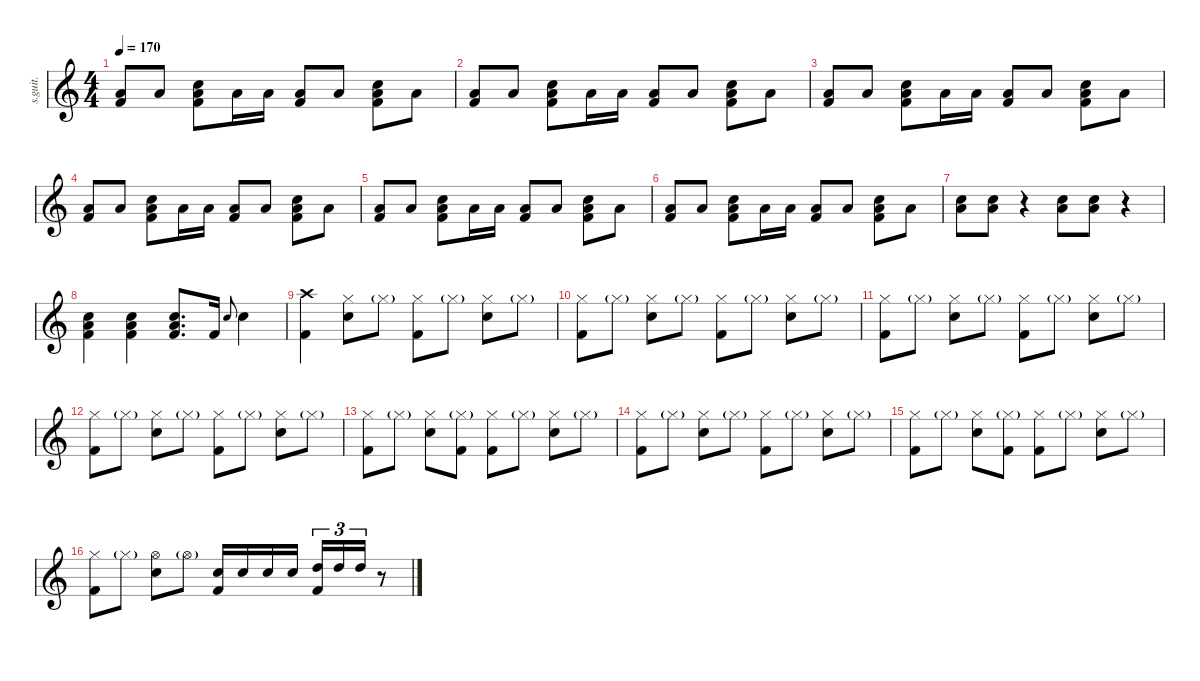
\defaultSystemsLayout 4
\hideDynamics
\bracketExtendMode nobrackets
\track ("Drumkit" "s.guit.") {instrument percussion}
\staff {score}
\articulation defaults
\ts (4 4)
\tempo 170
\clef g2
\ks c
("Low Floor Tom (hit)" "Kick (hit) 2").8{lyrics (0 "") lyrics (1 "") lyrics (2 "") lyrics (3 "") lyrics (4 "") dy ff} "Low Floor Tom (hit)".8{lyrics (0 "") lyrics (1 "") lyrics (2 "") lyrics (3 "") lyrics (4 "")} ("Snare (hit) 2" "Low Floor Tom (hit)" "Kick (hit) 2").8{lyrics (0 "") lyrics (1 "") lyrics (2 "") lyrics (3 "") lyrics (4 "")} "Low Floor Tom (hit)".16{lyrics (0 "") lyrics (1 "") lyrics (2 "") lyrics (3 "") lyrics (4 "")} "Low Floor Tom (hit)".16{lyrics (0 "") lyrics (1 "") lyrics (2 "") lyrics (3 "") lyrics (4 "")} ("Low Floor Tom (hit)" "Kick (hit) 2").8{lyrics (0 "") lyrics (1 "") lyrics (2 "") lyrics (3 "") lyrics (4 "")} "Low Floor Tom (hit)".8{lyrics (0 "") lyrics (1 "") lyrics (2 "") lyrics (3 "") lyrics (4 "")} ("Snare (hit) 2" "Low Floor Tom (hit)" "Kick (hit) 2").8{lyrics (0 "") lyrics (1 "") lyrics (2 "") lyrics (3 "") lyrics (4 "")} "Low Floor Tom (hit)".8{lyrics (0 "") lyrics (1 "") lyrics (2 "") lyrics (3 "") lyrics (4 "")} |
("Low Floor Tom (hit)" "Kick (hit) 2").8{lyrics (0 "") lyrics (1 "") lyrics (2 "") lyrics (3 "") lyrics (4 "")} "Low Floor Tom (hit)".8{lyrics (0 "") lyrics (1 "") lyrics (2 "") lyrics (3 "") lyrics (4 "")} ("Snare (hit) 2" "Low Floor Tom (hit)" "Kick (hit) 2").8{lyrics (0 "") lyrics (1 "") lyrics (2 "") lyrics (3 "") lyrics (4 "")} "Low Floor Tom (hit)".16{lyrics (0 "") lyrics (1 "") lyrics (2 "") lyrics (3 "") lyrics (4 "")} "Low Floor Tom (hit)".16{lyrics (0 "") lyrics (1 "") lyrics (2 "") lyrics (3 "") lyrics (4 "")} ("Low Floor Tom (hit)" "Kick (hit) 2").8{lyrics (0 "") lyrics (1 "") lyrics (2 "") lyrics (3 "") lyrics (4 "")} "Low Floor Tom (hit)".8{lyrics (0 "") lyrics (1 "") lyrics (2 "") lyrics (3 "") lyrics (4 "")} ("Snare (hit) 2" "Low Floor Tom (hit)" "Kick (hit) 2").8{lyrics (0 "") lyrics (1 "") lyrics (2 "") lyrics (3 "") lyrics (4 "")} "Low Floor Tom (hit)".8{lyrics (0 "") lyrics (1 "") lyrics (2 "") lyrics (3 "") lyrics (4 "")} |
("Low Floor Tom (hit)" "Kick (hit) 2").8{lyrics (0 "") lyrics (1 "") lyrics (2 "") lyrics (3 "") lyrics (4 "")} "Low Floor Tom (hit)".8{lyrics (0 "") lyrics (1 "") lyrics (2 "") lyrics (3 "") lyrics (4 "")} ("Snare (hit) 2" "Low Floor Tom (hit)" "Kick (hit) 2").8{lyrics (0 "") lyrics (1 "") lyrics (2 "") lyrics (3 "") lyrics (4 "")} "Low Floor Tom (hit)".16{lyrics (0 "") lyrics (1 "") lyrics (2 "") lyrics (3 "") lyrics (4 "")} "Low Floor Tom (hit)".16{lyrics (0 "") lyrics (1 "") lyrics (2 "") lyrics (3 "") lyrics (4 "")} ("Low Floor Tom (hit)" "Kick (hit) 2").8{lyrics (0 "") lyrics (1 "") lyrics (2 "") lyrics (3 "") lyrics (4 "")} "Low Floor Tom (hit)".8{lyrics (0 "") lyrics (1 "") lyrics (2 "") lyrics (3 "") lyrics (4 "")} ("Snare (hit) 2" "Low Floor Tom (hit)" "Kick (hit) 2").8{lyrics (0 "") lyrics (1 "") lyrics (2 "") lyrics (3 "") lyrics (4 "")} "Low Floor Tom (hit)".8{lyrics (0 "") lyrics (1 "") lyrics (2 "") lyrics (3 "") lyrics (4 "")} |
("Low Floor Tom (hit)" "Kick (hit) 2").8{lyrics (0 "") lyrics (1 "") lyrics (2 "") lyrics (3 "") lyrics (4 "")} "Low Floor Tom (hit)".8{lyrics (0 "") lyrics (1 "") lyrics (2 "") lyrics (3 "") lyrics (4 "")} ("Snare (hit) 2" "Low Floor Tom (hit)" "Kick (hit) 2").8{lyrics (0 "") lyrics (1 "") lyrics (2 "") lyrics (3 "") lyrics (4 "")} "Low Floor Tom (hit)".16{lyrics (0 "") lyrics (1 "") lyrics (2 "") lyrics (3 "") lyrics (4 "")} "Low Floor Tom (hit)".16{lyrics (0 "") lyrics (1 "") lyrics (2 "") lyrics (3 "") lyrics (4 "")} ("Low Floor Tom (hit)" "Kick (hit) 2").8{lyrics (0 "") lyrics (1 "") lyrics (2 "") lyrics (3 "") lyrics (4 "")} "Low Floor Tom (hit)".8{lyrics (0 "") lyrics (1 "") lyrics (2 "") lyrics (3 "") lyrics (4 "")} ("Snare (hit) 2" "Low Floor Tom (hit)" "Kick (hit) 2").8{lyrics (0 "") lyrics (1 "") lyrics (2 "") lyrics (3 "") lyrics (4 "")} "Low Floor Tom (hit)".8{lyrics (0 "") lyrics (1 "") lyrics (2 "") lyrics (3 "") lyrics (4 "")} |
("Low Floor Tom (hit)" "Kick (hit) 2").8{lyrics (0 "") lyrics (1 "") lyrics (2 "") lyrics (3 "") lyrics (4 "")} "Low Floor Tom (hit)".8{lyrics (0 "") lyrics (1 "") lyrics (2 "") lyrics (3 "") lyrics (4 "")} ("Snare (hit) 2" "Low Floor Tom (hit)" "Kick (hit) 2").8{lyrics (0 "") lyrics (1 "") lyrics (2 "") lyrics (3 "") lyrics (4 "")} "Low Floor Tom (hit)".16{lyrics (0 "") lyrics (1 "") lyrics (2 "") lyrics (3 "") lyrics (4 "")} "Low Floor Tom (hit)".16{lyrics (0 "") lyrics (1 "") lyrics (2 "") lyrics (3 "") lyrics (4 "")} ("Low Floor Tom (hit)" "Kick (hit) 2").8{lyrics (0 "") lyrics (1 "") lyrics (2 "") lyrics (3 "") lyrics (4 "")} "Low Floor Tom (hit)".8{lyrics (0 "") lyrics (1 "") lyrics (2 "") lyrics (3 "") lyrics (4 "")} ("Snare (hit) 2" "Low Floor Tom (hit)" "Kick (hit) 2").8{lyrics (0 "") lyrics (1 "") lyrics (2 "") lyrics (3 "") lyrics (4 "")} "Low Floor Tom (hit)".8{lyrics (0 "") lyrics (1 "") lyrics (2 "") lyrics (3 "") lyrics (4 "")} |
("Low Floor Tom (hit)" "Kick (hit) 2").8{lyrics (0 "") lyrics (1 "") lyrics (2 "") lyrics (3 "") lyrics (4 "")} "Low Floor Tom (hit)".8{lyrics (0 "") lyrics (1 "") lyrics (2 "") lyrics (3 "") lyrics (4 "")} ("Snare (hit) 2" "Low Floor Tom (hit)" "Kick (hit) 2").8{lyrics (0 "") lyrics (1 "") lyrics (2 "") lyrics (3 "") lyrics (4 "")} "Low Floor Tom (hit)".16{lyrics (0 "") lyrics (1 "") lyrics (2 "") lyrics (3 "") lyrics (4 "")} "Low Floor Tom (hit)".16{lyrics (0 "") lyrics (1 "") lyrics (2 "") lyrics (3 "") lyrics (4 "")} ("Low Floor Tom (hit)" "Kick (hit) 2").8{lyrics (0 "") lyrics (1 "") lyrics (2 "") lyrics (3 "") lyrics (4 "")} "Low Floor Tom (hit)".8{lyrics (0 "") lyrics (1 "") lyrics (2 "") lyrics (3 "") lyrics (4 "")} ("Snare (hit) 2" "Low Floor Tom (hit)" "Kick (hit) 2").8{lyrics (0 "") lyrics (1 "") lyrics (2 "") lyrics (3 "") lyrics (4 "")} "Low Floor Tom (hit)".8{lyrics (0 "") lyrics (1 "") lyrics (2 "") lyrics (3 "") lyrics (4 "")} |
("Snare (hit) 2" "Low Floor Tom (hit)").8{lyrics (0 "") lyrics (1 "") lyrics (2 "") lyrics (3 "") lyrics (4 "")} ("Snare (hit) 2" "Low Floor Tom (hit)").8{lyrics (0 "") lyrics (1 "") lyrics (2 "") lyrics (3 "") lyrics (4 "")} r.4 ("Snare (hit) 2" "Low Floor Tom (hit)").8{lyrics (0 "") lyrics (1 "") lyrics (2 "") lyrics (3 "") lyrics (4 "")} ("Snare (hit) 2" "Low Floor Tom (hit)").8{lyrics (0 "") lyrics (1 "") lyrics (2 "") lyrics (3 "") lyrics (4 "")} r.4 |
("Snare (hit) 2" "Low Floor Tom (hit)" "Kick (hit) 2").4{lyrics (0 "") lyrics (1 "") lyrics (2 "") lyrics (3 "") lyrics (4 "")} ("Snare (hit) 2" "Low Floor Tom (hit)" "Kick (hit) 2").4{lyrics (0 "") lyrics (1 "") lyrics (2 "") lyrics (3 "") lyrics (4 "")} ("Snare (hit) 2" "Low Floor Tom (hit)" "Kick (hit) 2").8{d lyrics (0 "") lyrics (1 "") lyrics (2 "") lyrics (3 "") lyrics (4 "")} "Kick (hit) 2".16{lyrics (0 "") lyrics (1 "") lyrics (2 "") lyrics (3 "") lyrics (4 "")} "Snare (hit) 2".8{lyrics (0 "") lyrics (1 "") lyrics (2 "") lyrics (3 "") lyrics (4 "") gr onbeat} "Snare (hit) 2".4{lyrics (0 "") lyrics (1 "") lyrics (2 "") lyrics (3 "") lyrics (4 "")} |
("Crash high (hit)" "Kick (hit) 2").4{lyrics (0 "") lyrics (1 "") lyrics (2 "") lyrics (3 "") lyrics (4 "")} ("Hi-Hat (closed)" "Snare (hit) 2").8{lyrics (0 "") lyrics (1 "") lyrics (2 "") lyrics (3 "") lyrics (4 "")} "Hi-Hat (closed)"{g}.8{lyrics (0 "") lyrics (1 "") lyrics (2 "") lyrics (3 "") lyrics (4 "")} ("Hi-Hat (closed)" "Kick (hit) 2").8{lyrics (0 "") lyrics (1 "") lyrics (2 "") lyrics (3 "") lyrics (4 "")} "Hi-Hat (closed)"{g}.8{lyrics (0 "") lyrics (1 "") lyrics (2 "") lyrics (3 "") lyrics (4 "")} ("Hi-Hat (closed)" "Snare (hit) 2").8{lyrics (0 "") lyrics (1 "") lyrics (2 "") lyrics (3 "") lyrics (4 "")} "Hi-Hat (closed)"{g}.8{lyrics (0 "") lyrics (1 "") lyrics (2 "") lyrics (3 "") lyrics (4 "")} |
("Hi-Hat (closed)" "Kick (hit) 2").8{lyrics (0 "") lyrics (1 "") lyrics (2 "") lyrics (3 "") lyrics (4 "")} "Hi-Hat (closed)"{g}.8{lyrics (0 "") lyrics (1 "") lyrics (2 "") lyrics (3 "") lyrics (4 "")} ("Hi-Hat (closed)" "Snare (hit) 2").8{lyrics (0 "") lyrics (1 "") lyrics (2 "") lyrics (3 "") lyrics (4 "")} "Hi-Hat (closed)"{g}.8{lyrics (0 "") lyrics (1 "") lyrics (2 "") lyrics (3 "") lyrics (4 "")} ("Hi-Hat (closed)" "Kick (hit) 2").8{lyrics (0 "") lyrics (1 "") lyrics (2 "") lyrics (3 "") lyrics (4 "")} "Hi-Hat (closed)"{g}.8{lyrics (0 "") lyrics (1 "") lyrics (2 "") lyrics (3 "") lyrics (4 "")} ("Hi-Hat (closed)" "Snare (hit) 2").8{lyrics (0 "") lyrics (1 "") lyrics (2 "") lyrics (3 "") lyrics (4 "")} "Hi-Hat (closed)"{g}.8{lyrics (0 "") lyrics (1 "") lyrics (2 "") lyrics (3 "") lyrics (4 "")} |
("Hi-Hat (closed)" "Kick (hit) 2").8{lyrics (0 "") lyrics (1 "") lyrics (2 "") lyrics (3 "") lyrics (4 "")} "Hi-Hat (closed)"{g}.8{lyrics (0 "") lyrics (1 "") lyrics (2 "") lyrics (3 "") lyrics (4 "")} ("Hi-Hat (closed)" "Snare (hit) 2").8{lyrics (0 "") lyrics (1 "") lyrics (2 "") lyrics (3 "") lyrics (4 "")} "Hi-Hat (closed)"{g}.8{lyrics (0 "") lyrics (1 "") lyrics (2 "") lyrics (3 "") lyrics (4 "")} ("Hi-Hat (closed)" "Kick (hit) 2").8{lyrics (0 "") lyrics (1 "") lyrics (2 "") lyrics (3 "") lyrics (4 "")} "Hi-Hat (closed)"{g}.8{lyrics (0 "") lyrics (1 "") lyrics (2 "") lyrics (3 "") lyrics (4 "")} ("Hi-Hat (closed)" "Snare (hit) 2").8{lyrics (0 "") lyrics (1 "") lyrics (2 "") lyrics (3 "") lyrics (4 "")} "Hi-Hat (closed)"{g}.8{lyrics (0 "") lyrics (1 "") lyrics (2 "") lyrics (3 "") lyrics (4 "")} |
("Hi-Hat (closed)" "Kick (hit) 2").8{lyrics (0 "") lyrics (1 "") lyrics (2 "") lyrics (3 "") lyrics (4 "")} "Hi-Hat (closed)"{g}.8{lyrics (0 "") lyrics (1 "") lyrics (2 "") lyrics (3 "") lyrics (4 "")} ("Hi-Hat (closed)" "Snare (hit) 2").8{lyrics (0 "") lyrics (1 "") lyrics (2 "") lyrics (3 "") lyrics (4 "")} "Hi-Hat (closed)"{g}.8{lyrics (0 "") lyrics (1 "") lyrics (2 "") lyrics (3 "") lyrics (4 "")} ("Hi-Hat (closed)" "Kick (hit) 2").8{lyrics (0 "") lyrics (1 "") lyrics (2 "") lyrics (3 "") lyrics (4 "")} "Hi-Hat (closed)"{g}.8{lyrics (0 "") lyrics (1 "") lyrics (2 "") lyrics (3 "") lyrics (4 "")} ("Hi-Hat (closed)" "Snare (hit) 2").8{lyrics (0 "") lyrics (1 "") lyrics (2 "") lyrics (3 "") lyrics (4 "")} "Hi-Hat (closed)"{g}.8{lyrics (0 "") lyrics (1 "") lyrics (2 "") lyrics (3 "") lyrics (4 "")} |
("Hi-Hat (closed)" "Kick (hit) 2").8{lyrics (0 "") lyrics (1 "") lyrics (2 "") lyrics (3 "") lyrics (4 "")} "Hi-Hat (closed)"{g}.8{lyrics (0 "") lyrics (1 "") lyrics (2 "") lyrics (3 "") lyrics (4 "")} ("Hi-Hat (closed)" "Snare (hit) 2").8{lyrics (0 "") lyrics (1 "") lyrics (2 "") lyrics (3 "") lyrics (4 "")} ("Hi-Hat (closed)"{g} "Kick (hit) 2").8{lyrics (0 "") lyrics (1 "") lyrics (2 "") lyrics (3 "") lyrics (4 "")} ("Hi-Hat (closed)" "Kick (hit) 2").8{lyrics (0 "") lyrics (1 "") lyrics (2 "") lyrics (3 "") lyrics (4 "")} "Hi-Hat (closed)"{g}.8{lyrics (0 "") lyrics (1 "") lyrics (2 "") lyrics (3 "") lyrics (4 "")} ("Hi-Hat (closed)" "Snare (hit) 2").8{lyrics (0 "") lyrics (1 "") lyrics (2 "") lyrics (3 "") lyrics (4 "")} "Hi-Hat (closed)"{g}.8{lyrics (0 "") lyrics (1 "") lyrics (2 "") lyrics (3 "") lyrics (4 "")} |
("Hi-Hat (closed)" "Kick (hit) 2").8{lyrics (0 "") lyrics (1 "") lyrics (2 "") lyrics (3 "") lyrics (4 "")} "Hi-Hat (closed)"{g}.8{lyrics (0 "") lyrics (1 "") lyrics (2 "") lyrics (3 "") lyrics (4 "")} ("Hi-Hat (closed)" "Snare (hit) 2").8{lyrics (0 "") lyrics (1 "") lyrics (2 "") lyrics (3 "") lyrics (4 "")} "Hi-Hat (closed)"{g}.8{lyrics (0 "") lyrics (1 "") lyrics (2 "") lyrics (3 "") lyrics (4 "")} ("Hi-Hat (closed)" "Kick (hit) 2").8{lyrics (0 "") lyrics (1 "") lyrics (2 "") lyrics (3 "") lyrics (4 "")} "Hi-Hat (closed)"{g}.8{lyrics (0 "") lyrics (1 "") lyrics (2 "") lyrics (3 "") lyrics (4 "")} ("Hi-Hat (closed)" "Snare (hit) 2").8{lyrics (0 "") lyrics (1 "") lyrics (2 "") lyrics (3 "") lyrics (4 "")} "Hi-Hat (closed)"{g}.8{lyrics (0 "") lyrics (1 "") lyrics (2 "") lyrics (3 "") lyrics (4 "")} |
("Hi-Hat (closed)" "Kick (hit) 2").8{lyrics (0 "") lyrics (1 "") lyrics (2 "") lyrics (3 "") lyrics (4 "")} "Hi-Hat (closed)"{g}.8{lyrics (0 "") lyrics (1 "") lyrics (2 "") lyrics (3 "") lyrics (4 "")} ("Hi-Hat (closed)" "Snare (hit) 2").8{lyrics (0 "") lyrics (1 "") lyrics (2 "") lyrics (3 "") lyrics (4 "")} ("Hi-Hat (closed)"{g} "Kick (hit) 2").8{lyrics (0 "") lyrics (1 "") lyrics (2 "") lyrics (3 "") lyrics (4 "")} ("Hi-Hat (closed)" "Kick (hit) 2").8{lyrics (0 "") lyrics (1 "") lyrics (2 "") lyrics (3 "") lyrics (4 "")} "Hi-Hat (closed)"{g}.8{lyrics (0 "") lyrics (1 "") lyrics (2 "") lyrics (3 "") lyrics (4 "")} ("Hi-Hat (closed)" "Snare (hit) 2").8{lyrics (0 "") lyrics (1 "") lyrics (2 "") lyrics (3 "") lyrics (4 "")} "Hi-Hat (closed)"{g}.8{lyrics (0 "") lyrics (1 "") lyrics (2 "") lyrics (3 "") lyrics (4 "")} |
("Hi-Hat (closed)" "Kick (hit) 2").8{lyrics (0 "") lyrics (1 "") lyrics (2 "") lyrics (3 "") lyrics (4 "")} "Hi-Hat (closed)"{g}.8{lyrics (0 "") lyrics (1 "") lyrics (2 "") lyrics (3 "") lyrics (4 "")} ("Hi-Hat (open)" "Snare (hit) 2").8{lyrics (0 "") lyrics (1 "") lyrics (2 "") lyrics (3 "") lyrics (4 "")} "Hi-Hat (open)"{g}.8{lyrics (0 "") lyrics (1 "") lyrics (2 "") lyrics (3 "") lyrics (4 "")} ("Snare (hit) 2" "Kick (hit) 2").16{lyrics (0 "") lyrics (1 "") lyrics (2 "") lyrics (3 "") lyrics (4 "")} "Snare (hit) 2".16{lyrics (0 "") lyrics (1 "") lyrics (2 "") lyrics (3 "") lyrics (4 "")} "Snare (hit) 2".16{lyrics (0 "") lyrics (1 "") lyrics (2 "") lyrics (3 "") lyrics (4 "")} "Snare (hit) 2".16{lyrics (0 "") lyrics (1 "") lyrics (2 "") lyrics (3 "") lyrics (4 "")} ("High Tom (hit)" "Kick (hit) 2").16{tu (3 2) lyrics (0 "") lyrics (1 "") lyrics (2 "") lyrics (3 "") lyrics (4 "")} "High Tom (hit)".16{tu (3 2) lyrics (0 "") lyrics (1 "") lyrics (2 "") lyrics (3 "") lyrics (4 "")} "High Tom (hit)".16{tu (3 2) lyrics (0 "") lyrics (1 "") lyrics (2 "") lyrics (3 "") lyrics (4 "")} r.8
